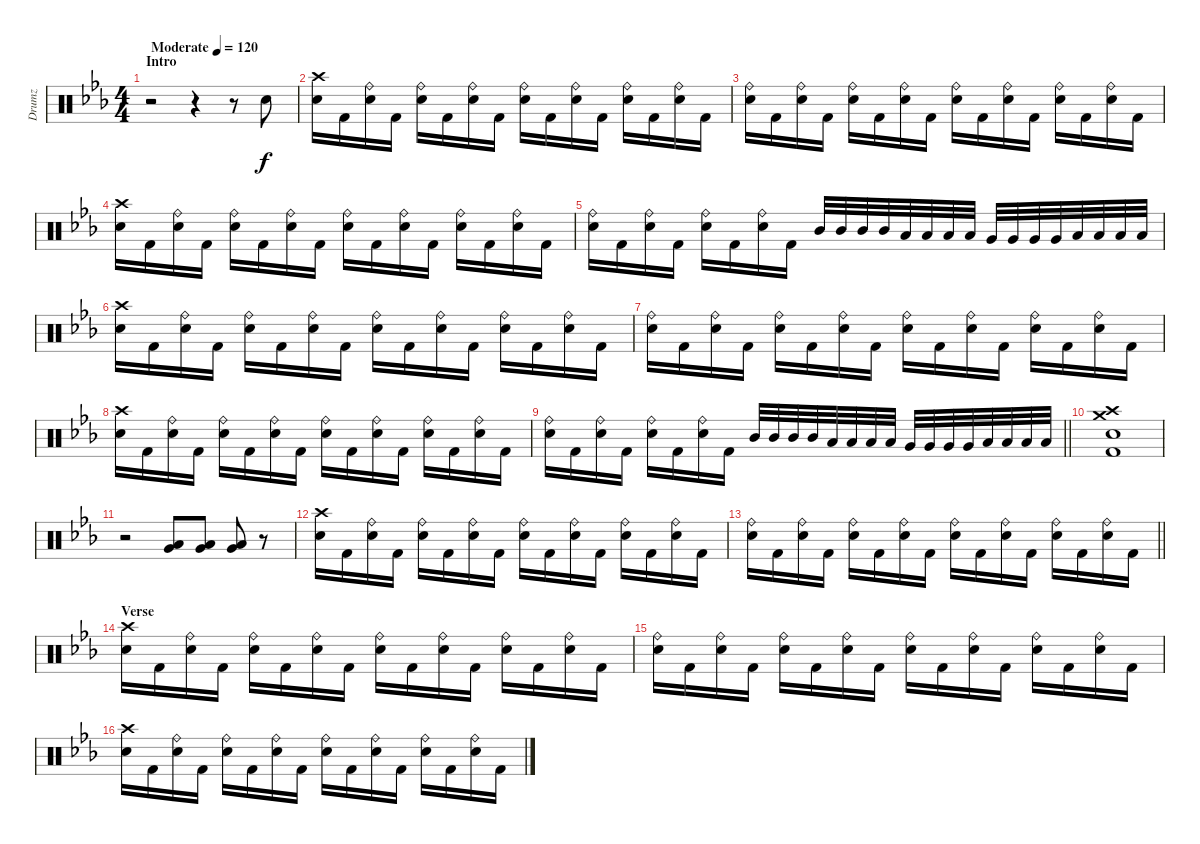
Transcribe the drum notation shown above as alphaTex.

\track ("Drumz" "Drumz") {instrument percussion}
\staff {score}
\articulation defaults
\ts (4 4)
\section ("" "Intro")
\tempo (120 "Moderate")
\clef neutral
\ks eb
r.2{dy f} r.4 r.8 "Electric Snare (hit)".8 |
("Crash high (hit)" "Electric Snare (hit)").16 "Kick (hit) 2".16 ("Ride (bell)" "Electric Snare (hit)").16 "Kick (hit) 2".16 ("Ride (bell)" "Electric Snare (hit)").16 "Kick (hit) 2".16 ("Ride (bell)" "Electric Snare (hit)").16 "Kick (hit) 2".16 ("Ride (bell)" "Electric Snare (hit)").16 "Kick (hit) 2".16 ("Ride (bell)" "Electric Snare (hit)").16 "Kick (hit) 2".16 ("Ride (bell)" "Electric Snare (hit)").16 "Kick (hit) 2".16 ("Ride (bell)" "Electric Snare (hit)").16 "Kick (hit) 2".16 |
("Ride (bell)" "Electric Snare (hit)").16 "Kick (hit) 2".16 ("Ride (bell)" "Electric Snare (hit)").16 "Kick (hit) 2".16 ("Ride (bell)" "Electric Snare (hit)").16 "Kick (hit) 2".16 ("Ride (bell)" "Electric Snare (hit)").16 "Kick (hit) 2".16 ("Ride (bell)" "Electric Snare (hit)").16 "Kick (hit) 2".16 ("Ride (bell)" "Electric Snare (hit)").16 "Kick (hit) 2".16 ("Ride (bell)" "Electric Snare (hit)").16 "Kick (hit) 2".16 ("Ride (bell)" "Electric Snare (hit)").16 "Kick (hit) 2".16 |
("Crash high (hit)" "Electric Snare (hit)").16 "Kick (hit) 2".16 ("Ride (bell)" "Electric Snare (hit)").16 "Kick (hit) 2".16 ("Ride (bell)" "Electric Snare (hit)").16 "Kick (hit) 2".16 ("Ride (bell)" "Electric Snare (hit)").16 "Kick (hit) 2".16 ("Ride (bell)" "Electric Snare (hit)").16 "Kick (hit) 2".16 ("Ride (bell)" "Electric Snare (hit)").16 "Kick (hit) 2".16 ("Ride (bell)" "Electric Snare (hit)").16 "Kick (hit) 2".16 ("Ride (bell)" "Electric Snare (hit)").16 "Kick (hit) 2".16 |
("Ride (bell)" "Electric Snare (hit)").16 "Kick (hit) 2".16 ("Ride (bell)" "Electric Snare (hit)").16 "Kick (hit) 2".16 ("Ride (bell)" "Electric Snare (hit)").16 "Kick (hit) 2".16 ("Ride (bell)" "Electric Snare (hit)").16 "Kick (hit) 2".16 "Mid Tom (hit)".32 "Mid Tom (hit)".32 "Mid Tom (hit)".32 "Mid Tom (hit)".32 "Low Tom (hit)".32 "Low Tom (hit)".32 "Low Tom (hit)".32 "Low Tom (hit)".32 "Very Low Tom (hit)".32 "Very Low Tom (hit)".32 "Very Low Tom (hit)".32 "Very Low Tom (hit)".32 "Low Floor Tom (hit)".32 "Low Floor Tom (hit)".32 "Low Floor Tom (hit)".32 "Low Floor Tom (hit)".32 |
("Crash high (hit)" "Electric Snare (hit)").16 "Kick (hit) 2".16 ("Ride (bell)" "Electric Snare (hit)").16 "Kick (hit) 2".16 ("Ride (bell)" "Electric Snare (hit)").16 "Kick (hit) 2".16 ("Ride (bell)" "Electric Snare (hit)").16 "Kick (hit) 2".16 ("Ride (bell)" "Electric Snare (hit)").16 "Kick (hit) 2".16 ("Ride (bell)" "Electric Snare (hit)").16 "Kick (hit) 2".16 ("Ride (bell)" "Electric Snare (hit)").16 "Kick (hit) 2".16 ("Ride (bell)" "Electric Snare (hit)").16 "Kick (hit) 2".16 |
("Ride (bell)" "Electric Snare (hit)").16 "Kick (hit) 2".16 ("Ride (bell)" "Electric Snare (hit)").16 "Kick (hit) 2".16 ("Ride (bell)" "Electric Snare (hit)").16 "Kick (hit) 2".16 ("Ride (bell)" "Electric Snare (hit)").16 "Kick (hit) 2".16 ("Ride (bell)" "Electric Snare (hit)").16 "Kick (hit) 2".16 ("Ride (bell)" "Electric Snare (hit)").16 "Kick (hit) 2".16 ("Ride (bell)" "Electric Snare (hit)").16 "Kick (hit) 2".16 ("Ride (bell)" "Electric Snare (hit)").16 "Kick (hit) 2".16 |
("Crash high (hit)" "Electric Snare (hit)").16 "Kick (hit) 2".16 ("Ride (bell)" "Electric Snare (hit)").16 "Kick (hit) 2".16 ("Ride (bell)" "Electric Snare (hit)").16 "Kick (hit) 2".16 ("Ride (bell)" "Electric Snare (hit)").16 "Kick (hit) 2".16 ("Ride (bell)" "Electric Snare (hit)").16 "Kick (hit) 2".16 ("Ride (bell)" "Electric Snare (hit)").16 "Kick (hit) 2".16 ("Ride (bell)" "Electric Snare (hit)").16 "Kick (hit) 2".16 ("Ride (bell)" "Electric Snare (hit)").16 "Kick (hit) 2".16 |
\barLineRight lightlight
("Ride (bell)" "Electric Snare (hit)").16 "Kick (hit) 2".16 ("Ride (bell)" "Electric Snare (hit)").16 "Kick (hit) 2".16 ("Ride (bell)" "Electric Snare (hit)").16 "Kick (hit) 2".16 ("Ride (bell)" "Electric Snare (hit)").16 "Kick (hit) 2".16 "Mid Tom (hit)".32 "Mid Tom (hit)".32 "Mid Tom (hit)".32 "Mid Tom (hit)".32 "Low Tom (hit)".32 "Low Tom (hit)".32 "Low Tom (hit)".32 "Low Tom (hit)".32 "Very Low Tom (hit)".32 "Very Low Tom (hit)".32 "Very Low Tom (hit)".32 "Very Low Tom (hit)".32 "Low Floor Tom (hit)".32 "Low Floor Tom (hit)".32 "Low Floor Tom (hit)".32 "Low Floor Tom (hit)".32 |
\section ("" "")
("Crash medium (hit)" "Crash high (hit)" "Electric Snare (hit)" "Kick (hit) 2").1 |
r.2 ("Very Low Tom (hit)" "Low Tom (hit)").8 ("Very Low Tom (hit)" "Low Tom (hit)").8 ("Very Low Tom (hit)" "Low Tom (hit)").8 r.8 |
("Crash high (hit)" "Electric Snare (hit)").16 "Kick (hit) 2".16 ("Ride (bell)" "Electric Snare (hit)").16 "Kick (hit) 2".16 ("Ride (bell)" "Electric Snare (hit)").16 "Kick (hit) 2".16 ("Ride (bell)" "Electric Snare (hit)").16 "Kick (hit) 2".16 ("Ride (bell)" "Electric Snare (hit)").16 "Kick (hit) 2".16 ("Ride (bell)" "Electric Snare (hit)").16 "Kick (hit) 2".16 ("Ride (bell)" "Electric Snare (hit)").16 "Kick (hit) 2".16 ("Ride (bell)" "Electric Snare (hit)").16 "Kick (hit) 2".16 |
\barLineRight lightlight
("Ride (bell)" "Electric Snare (hit)").16 "Kick (hit) 2".16 ("Ride (bell)" "Electric Snare (hit)").16 "Kick (hit) 2".16 ("Ride (bell)" "Electric Snare (hit)").16 "Kick (hit) 2".16 ("Ride (bell)" "Electric Snare (hit)").16 "Kick (hit) 2".16 ("Ride (bell)" "Electric Snare (hit)").16 "Kick (hit) 2".16 ("Ride (bell)" "Electric Snare (hit)").16 "Kick (hit) 2".16 ("Ride (bell)" "Electric Snare (hit)").16 "Kick (hit) 2".16 ("Ride (bell)" "Electric Snare (hit)").16 "Kick (hit) 2".16 |
\section ("" "Verse")
("Crash high (hit)" "Electric Snare (hit)").16 "Kick (hit) 2".16 ("Ride (bell)" "Electric Snare (hit)").16 "Kick (hit) 2".16 ("Ride (bell)" "Electric Snare (hit)").16 "Kick (hit) 2".16 ("Ride (bell)" "Electric Snare (hit)").16 "Kick (hit) 2".16 ("Ride (bell)" "Electric Snare (hit)").16 "Kick (hit) 2".16 ("Ride (bell)" "Electric Snare (hit)").16 "Kick (hit) 2".16 ("Ride (bell)" "Electric Snare (hit)").16 "Kick (hit) 2".16 ("Ride (bell)" "Electric Snare (hit)").16 "Kick (hit) 2".16 |
("Ride (bell)" "Electric Snare (hit)").16 "Kick (hit) 2".16 ("Ride (bell)" "Electric Snare (hit)").16 "Kick (hit) 2".16 ("Ride (bell)" "Electric Snare (hit)").16 "Kick (hit) 2".16 ("Ride (bell)" "Electric Snare (hit)").16 "Kick (hit) 2".16 ("Ride (bell)" "Electric Snare (hit)").16 "Kick (hit) 2".16 ("Ride (bell)" "Electric Snare (hit)").16 "Kick (hit) 2".16 ("Ride (bell)" "Electric Snare (hit)").16 "Kick (hit) 2".16 ("Ride (bell)" "Electric Snare (hit)").16 "Kick (hit) 2".16 |
("Crash high (hit)" "Electric Snare (hit)").16 "Kick (hit) 2".16 ("Ride (bell)" "Electric Snare (hit)").16 "Kick (hit) 2".16 ("Ride (bell)" "Electric Snare (hit)").16 "Kick (hit) 2".16 ("Ride (bell)" "Electric Snare (hit)").16 "Kick (hit) 2".16 ("Ride (bell)" "Electric Snare (hit)").16 "Kick (hit) 2".16 ("Ride (bell)" "Electric Snare (hit)").16 "Kick (hit) 2".16 ("Ride (bell)" "Electric Snare (hit)").16 "Kick (hit) 2".16 ("Ride (bell)" "Electric Snare (hit)").16 "Kick (hit) 2".16
